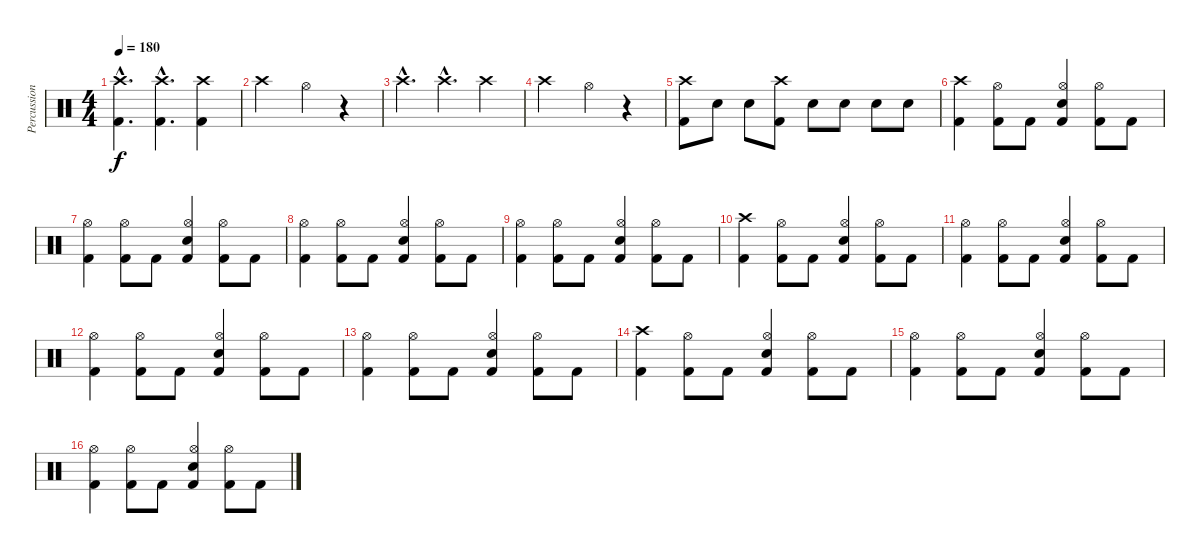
\track ("Percussion" "Percussion") {instrument percussion}
\staff {score}
\articulation defaults
\ts (4 4)
\tempo 180
\clef neutral
\ks c
("Crash high (hit)"{hac} "Kick (hit) 2"{hac}).4{d dy f} ("Crash high (hit)"{hac} "Kick (hit) 2"{hac}).4{d} ("Crash high (hit)" "Kick (hit) 2").4 |
"Crash high (hit)".2 "Hi-Hat (open)".4 r.4 |
"Crash high (hit)"{hac}.4{d} "Crash high (hit)"{hac}.4{d} "Crash high (hit)".4 |
"Crash high (hit)".2 "Hi-Hat (open)".4 r.4 |
("Crash high (hit)" "Kick (hit) 2").8 "Electric Snare (hit)".8 "Electric Snare (hit)".8 ("Crash high (hit)" "Kick (hit) 2").8 "Electric Snare (hit)".8 "Electric Snare (hit)".8 "Electric Snare (hit)".8 "Electric Snare (hit)".8 |
("Kick (hit) 2" "Crash high (hit)").4 ("Kick (hit) 2" "Hi-Hat (open)").8 "Kick (hit) 2".8 ("Kick (hit) 2" "Hi-Hat (open)" "Electric Snare (hit)").4 ("Kick (hit) 2" "Hi-Hat (open)").8 "Kick (hit) 2".8 |
("Kick (hit) 2" "Hi-Hat (open)").4 ("Kick (hit) 2" "Hi-Hat (open)").8 "Kick (hit) 2".8 ("Kick (hit) 2" "Hi-Hat (open)" "Electric Snare (hit)").4 ("Kick (hit) 2" "Hi-Hat (open)").8 "Kick (hit) 2".8 |
("Kick (hit) 2" "Hi-Hat (open)").4 ("Kick (hit) 2" "Hi-Hat (open)").8 "Kick (hit) 2".8 ("Kick (hit) 2" "Hi-Hat (open)" "Electric Snare (hit)").4 ("Kick (hit) 2" "Hi-Hat (open)").8 "Kick (hit) 2".8 |
("Kick (hit) 2" "Hi-Hat (open)").4 ("Kick (hit) 2" "Hi-Hat (open)").8 "Kick (hit) 2".8 ("Kick (hit) 2" "Hi-Hat (open)" "Electric Snare (hit)").4 ("Kick (hit) 2" "Hi-Hat (open)").8 "Kick (hit) 2".8 |
("Kick (hit) 2" "Crash high (hit)").4 ("Kick (hit) 2" "Hi-Hat (open)").8 "Kick (hit) 2".8 ("Kick (hit) 2" "Hi-Hat (open)" "Electric Snare (hit)").4 ("Kick (hit) 2" "Hi-Hat (open)").8 "Kick (hit) 2".8 |
("Kick (hit) 2" "Hi-Hat (open)").4 ("Kick (hit) 2" "Hi-Hat (open)").8 "Kick (hit) 2".8 ("Kick (hit) 2" "Hi-Hat (open)" "Electric Snare (hit)").4 ("Kick (hit) 2" "Hi-Hat (open)").8 "Kick (hit) 2".8 |
("Kick (hit) 2" "Hi-Hat (open)").4 ("Kick (hit) 2" "Hi-Hat (open)").8 "Kick (hit) 2".8 ("Kick (hit) 2" "Hi-Hat (open)" "Electric Snare (hit)").4 ("Kick (hit) 2" "Hi-Hat (open)").8 "Kick (hit) 2".8 |
("Kick (hit) 2" "Hi-Hat (open)").4 ("Kick (hit) 2" "Hi-Hat (open)").8 "Kick (hit) 2".8 ("Kick (hit) 2" "Hi-Hat (open)" "Electric Snare (hit)").4 ("Kick (hit) 2" "Hi-Hat (open)").8 "Kick (hit) 2".8 |
("Kick (hit) 2" "Crash high (hit)").4 ("Kick (hit) 2" "Hi-Hat (open)").8 "Kick (hit) 2".8 ("Kick (hit) 2" "Hi-Hat (open)" "Electric Snare (hit)").4 ("Kick (hit) 2" "Hi-Hat (open)").8 "Kick (hit) 2".8 |
("Kick (hit) 2" "Hi-Hat (open)").4 ("Kick (hit) 2" "Hi-Hat (open)").8 "Kick (hit) 2".8 ("Kick (hit) 2" "Hi-Hat (open)" "Electric Snare (hit)").4 ("Kick (hit) 2" "Hi-Hat (open)").8 "Kick (hit) 2".8 |
("Kick (hit) 2" "Hi-Hat (open)").4 ("Kick (hit) 2" "Hi-Hat (open)").8 "Kick (hit) 2".8 ("Kick (hit) 2" "Hi-Hat (open)" "Electric Snare (hit)").4 ("Kick (hit) 2" "Hi-Hat (open)").8 "Kick (hit) 2".8
